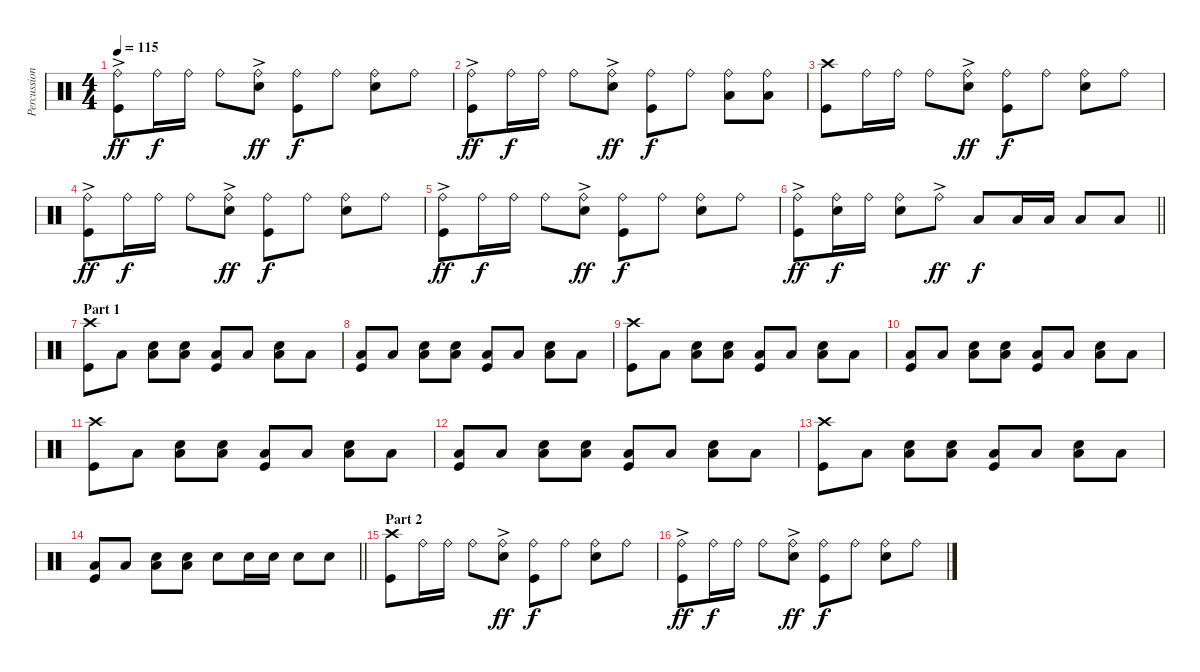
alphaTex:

\track ("Percussion" "Percussion") {instrument percussion}
\staff {score}
\articulation defaults
\ts (4 4)
\tempo 115
\clef neutral
\ks c
("Ride (bell)"{ac} "Kick (hit)").8{dy ff} "Ride (bell)".16{dy f} "Ride (bell)".16 "Ride (bell)".8 ("Ride (bell)"{ac} "Snare (hit) 2").8{dy ff} ("Ride (bell)" "Kick (hit)").8{dy f} "Ride (bell)".8 ("Ride (bell)" "Snare (hit) 2").8 "Ride (bell)".8 |
("Ride (bell)"{ac} "Kick (hit)").8{dy ff} "Ride (bell)".16{dy f} "Ride (bell)".16 "Ride (bell)".8 ("Ride (bell)"{ac} "Snare (hit) 2").8{dy ff} ("Ride (bell)" "Kick (hit)").8{dy f} "Ride (bell)".8 ("Ride (bell)" "Low Floor Tom (hit)").8 ("Ride (bell)" "Low Floor Tom (hit)").8 |
("Crash high (hit)" "Kick (hit)").8 "Ride (bell)".16 "Ride (bell)".16 "Ride (bell)".8 ("Ride (bell)"{ac} "Snare (hit) 2").8{dy ff} ("Ride (bell)" "Kick (hit)").8{dy f} "Ride (bell)".8 ("Ride (bell)" "Snare (hit) 2").8 "Ride (bell)".8 |
("Ride (bell)"{ac} "Kick (hit)").8{dy ff} "Ride (bell)".16{dy f} "Ride (bell)".16 "Ride (bell)".8 ("Ride (bell)"{ac} "Snare (hit) 2").8{dy ff} ("Ride (bell)" "Kick (hit)").8{dy f} "Ride (bell)".8 ("Ride (bell)" "Snare (hit) 2").8 "Ride (bell)".8 |
("Ride (bell)"{ac} "Kick (hit)").8{dy ff} "Ride (bell)".16{dy f} "Ride (bell)".16 "Ride (bell)".8 ("Ride (bell)"{ac} "Snare (hit) 2").8{dy ff} ("Ride (bell)" "Kick (hit)").8{dy f} "Ride (bell)".8 ("Ride (bell)" "Snare (hit) 2").8 "Ride (bell)".8 |
\barLineRight lightlight
("Ride (bell)"{ac} "Kick (hit)").8{dy ff} ("Ride (bell)" "Snare (hit) 2").16{dy f} "Ride (bell)".16 ("Ride (bell)" "Snare (hit) 2").8 "Ride (bell)"{ac}.8{dy ff} "Low Tom (hit)".8{dy f} "Low Tom (hit)".16 "Low Tom (hit)".16 "Low Tom (hit)".8 "Low Floor Tom (hit)".8 |
\section ("" "Part 1")
("Crash high (hit)" "Kick (hit)").8 "Low Floor Tom (hit)".8 ("Snare (hit) 2" "Low Floor Tom (hit)").8 ("Snare (hit) 2" "Low Floor Tom (hit)").8 ("Low Floor Tom (hit)" "Kick (hit)").8 "Low Floor Tom (hit)".8 ("Snare (hit) 2" "Low Floor Tom (hit)").8 "Low Floor Tom (hit)".8 |
("Low Floor Tom (hit)" "Kick (hit)").8 "Low Floor Tom (hit)".8 ("Snare (hit) 2" "Low Floor Tom (hit)").8 ("Snare (hit) 2" "Low Floor Tom (hit)").8 ("Low Floor Tom (hit)" "Kick (hit)").8 "Low Floor Tom (hit)".8 ("Snare (hit) 2" "Low Floor Tom (hit)").8 "Low Floor Tom (hit)".8 |
("Crash high (hit)" "Kick (hit)").8 "Low Floor Tom (hit)".8 ("Snare (hit) 2" "Low Floor Tom (hit)").8 ("Snare (hit) 2" "Low Floor Tom (hit)").8 ("Low Floor Tom (hit)" "Kick (hit)").8 "Low Floor Tom (hit)".8 ("Snare (hit) 2" "Low Floor Tom (hit)").8 "Low Floor Tom (hit)".8 |
("Low Floor Tom (hit)" "Kick (hit)").8 "Low Floor Tom (hit)".8 ("Snare (hit) 2" "Low Floor Tom (hit)").8 ("Snare (hit) 2" "Low Floor Tom (hit)").8 ("Low Floor Tom (hit)" "Kick (hit)").8 "Low Floor Tom (hit)".8 ("Snare (hit) 2" "Low Floor Tom (hit)").8 "Low Floor Tom (hit)".8 |
("Crash high (hit)" "Kick (hit)").8 "Low Floor Tom (hit)".8 ("Snare (hit) 2" "Low Floor Tom (hit)").8 ("Snare (hit) 2" "Low Floor Tom (hit)").8 ("Low Floor Tom (hit)" "Kick (hit)").8 "Low Floor Tom (hit)".8 ("Snare (hit) 2" "Low Floor Tom (hit)").8 "Low Floor Tom (hit)".8 |
("Low Floor Tom (hit)" "Kick (hit)").8 "Low Floor Tom (hit)".8 ("Snare (hit) 2" "Low Floor Tom (hit)").8 ("Snare (hit) 2" "Low Floor Tom (hit)").8 ("Low Floor Tom (hit)" "Kick (hit)").8 "Low Floor Tom (hit)".8 ("Snare (hit) 2" "Low Floor Tom (hit)").8 "Low Floor Tom (hit)".8 |
("Crash high (hit)" "Kick (hit)").8 "Low Floor Tom (hit)".8 ("Snare (hit) 2" "Low Floor Tom (hit)").8 ("Snare (hit) 2" "Low Floor Tom (hit)").8 ("Low Floor Tom (hit)" "Kick (hit)").8 "Low Floor Tom (hit)".8 ("Snare (hit) 2" "Low Floor Tom (hit)").8 "Low Floor Tom (hit)".8 |
\barLineRight lightlight
("Low Floor Tom (hit)" "Kick (hit)").8 "Low Floor Tom (hit)".8 ("Snare (hit) 2" "Low Floor Tom (hit)").8 ("Snare (hit) 2" "Low Floor Tom (hit)").8 "Snare (hit) 2".8 "Snare (hit) 2".16 "Snare (hit) 2".16 "Snare (hit) 2".8 "Snare (hit) 2".8 |
\section ("" "Part 2")
("Crash high (hit)" "Kick (hit)").8 "Ride (bell)".16 "Ride (bell)".16 "Ride (bell)".8 ("Ride (bell)"{ac} "Snare (hit) 2").8{dy ff} ("Ride (bell)" "Kick (hit)").8{dy f} "Ride (bell)".8 ("Ride (bell)" "Snare (hit) 2").8 "Ride (bell)".8 |
("Ride (bell)"{ac} "Kick (hit)").8{dy ff} "Ride (bell)".16{dy f} "Ride (bell)".16 "Ride (bell)".8 ("Ride (bell)"{ac} "Snare (hit) 2").8{dy ff} ("Ride (bell)" "Kick (hit)").8{dy f} "Ride (bell)".8 ("Ride (bell)" "Snare (hit) 2").8 "Ride (bell)".8
